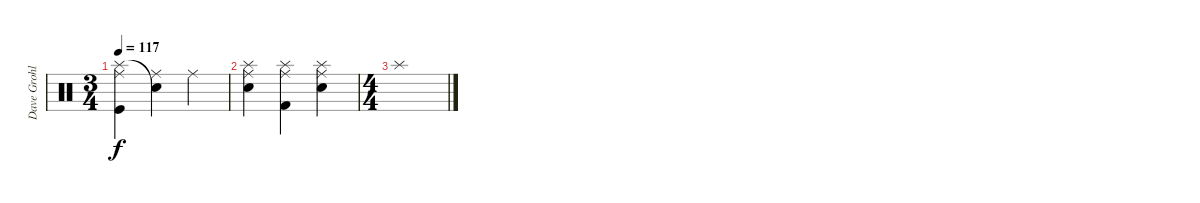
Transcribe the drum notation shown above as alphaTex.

\track ("Dave Grohl" "Dave Grohl") {instrument percussion}
\staff {score}
\articulation defaults
\ts (3 4)
\tempo 117
\clef neutral
\ks c
("Splash (hit)" "Kick (hit)" "Ride (middle)").4{dy f} ("Snare (hit)"{t} "Ride (middle)").4 "Ride (middle)".4 |
("Splash (hit)" "Ride (middle)" "Electric Snare (hit)").4 ("Splash (hit)" "Ride (middle)" "Kick (hit) 2").4 ("Splash (hit)" "Ride (middle)" "Electric Snare (hit)").4 |
\ts (4 4)
"Splash (hit)".1
